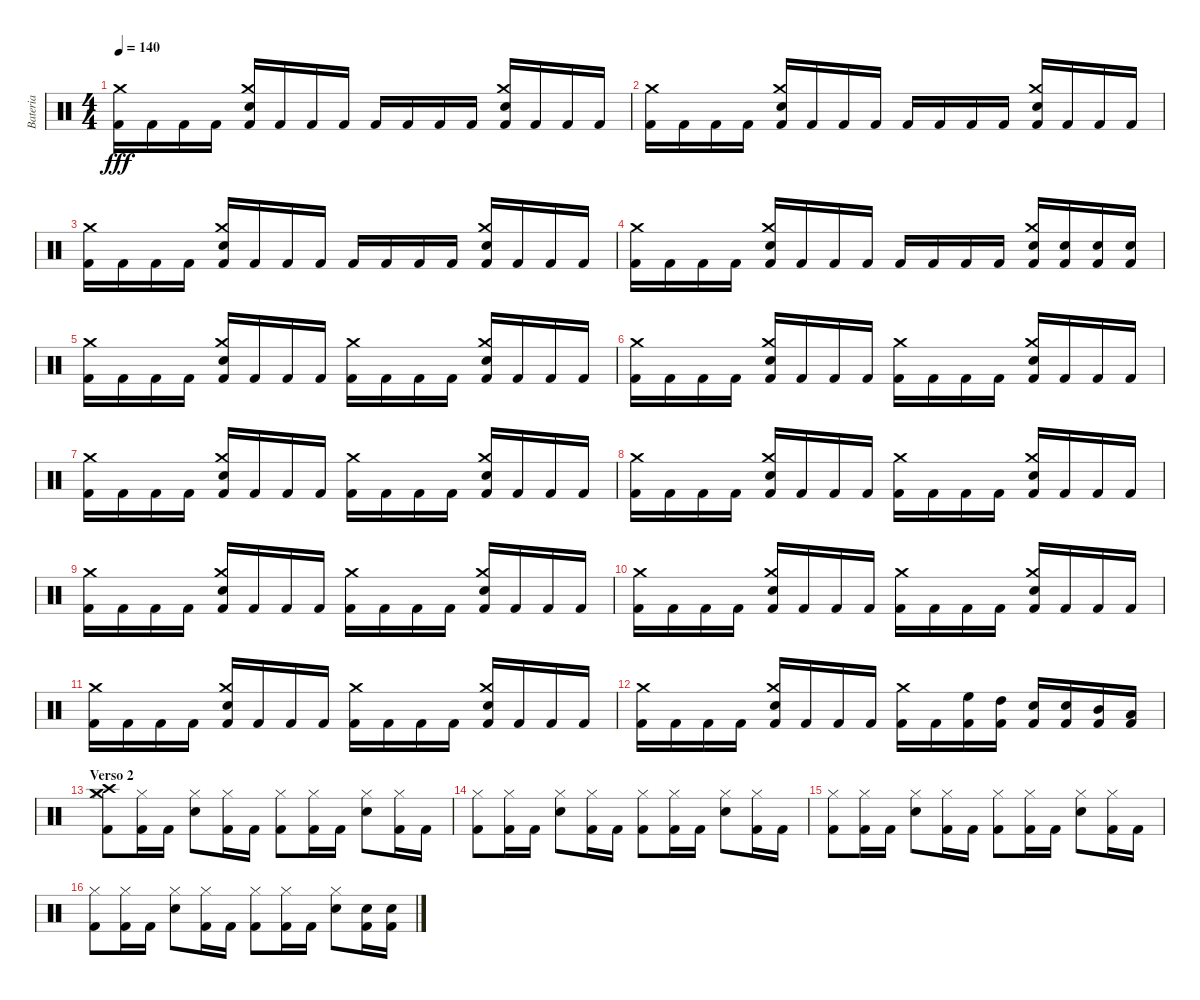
\track ("Bateria" "Bateria") {instrument percussion}
\staff {score}
\articulation defaults
\ts (4 4)
\tempo 140
\clef neutral
\ks c
("Kick (hit) 2" "Crash medium (hit)").16{dy fff} "Kick (hit) 2".16 "Kick (hit) 2".16 "Kick (hit) 2".16 ("Kick (hit) 2" "Metronome (bell)" "Crash medium (hit)").16 "Kick (hit) 2".16 "Kick (hit) 2".16 "Kick (hit) 2".16 "Kick (hit) 2".16 "Kick (hit) 2".16 "Kick (hit) 2".16 "Kick (hit) 2".16 ("Kick (hit) 2" "Metronome (bell)" "Crash medium (hit)").16 "Kick (hit) 2".16 "Kick (hit) 2".16 "Kick (hit) 2".16 |
("Kick (hit) 2" "Crash medium (hit)").16 "Kick (hit) 2".16 "Kick (hit) 2".16 "Kick (hit) 2".16 ("Kick (hit) 2" "Metronome (bell)" "Crash medium (hit)").16 "Kick (hit) 2".16 "Kick (hit) 2".16 "Kick (hit) 2".16 "Kick (hit) 2".16 "Kick (hit) 2".16 "Kick (hit) 2".16 "Kick (hit) 2".16 ("Kick (hit) 2" "Metronome (bell)" "Crash medium (hit)").16 "Kick (hit) 2".16 "Kick (hit) 2".16 "Kick (hit) 2".16 |
("Kick (hit) 2" "Crash medium (hit)").16 "Kick (hit) 2".16 "Kick (hit) 2".16 "Kick (hit) 2".16 ("Kick (hit) 2" "Metronome (bell)" "Crash medium (hit)").16 "Kick (hit) 2".16 "Kick (hit) 2".16 "Kick (hit) 2".16 "Kick (hit) 2".16 "Kick (hit) 2".16 "Kick (hit) 2".16 "Kick (hit) 2".16 ("Kick (hit) 2" "Metronome (bell)" "Crash medium (hit)").16 "Kick (hit) 2".16 "Kick (hit) 2".16 "Kick (hit) 2".16 |
("Kick (hit) 2" "Crash medium (hit)").16 "Kick (hit) 2".16 "Kick (hit) 2".16 "Kick (hit) 2".16 ("Kick (hit) 2" "Metronome (bell)" "Crash medium (hit)").16 "Kick (hit) 2".16 "Kick (hit) 2".16 "Kick (hit) 2".16 "Kick (hit) 2".16 "Kick (hit) 2".16 "Kick (hit) 2".16 "Kick (hit) 2".16 ("Kick (hit) 2" "Metronome (bell)" "Crash medium (hit)").16 ("Kick (hit) 2" "Metronome (bell)").16 ("Kick (hit) 2" "Metronome (bell)").16 ("Kick (hit) 2" "Metronome (bell)").16 |
("Kick (hit) 2" "Crash medium (hit)").16 "Kick (hit) 2".16 "Kick (hit) 2".16 "Kick (hit) 2".16 ("Kick (hit) 2" "Metronome (bell)" "Crash medium (hit)").16 "Kick (hit) 2".16 "Kick (hit) 2".16 "Kick (hit) 2".16 ("Kick (hit) 2" "Crash medium (hit)").16 "Kick (hit) 2".16 "Kick (hit) 2".16 "Kick (hit) 2".16 ("Kick (hit) 2" "Metronome (bell)" "Crash medium (hit)").16 "Kick (hit) 2".16 "Kick (hit) 2".16 "Kick (hit) 2".16 |
("Kick (hit) 2" "Crash medium (hit)").16 "Kick (hit) 2".16 "Kick (hit) 2".16 "Kick (hit) 2".16 ("Kick (hit) 2" "Metronome (bell)" "Crash medium (hit)").16 "Kick (hit) 2".16 "Kick (hit) 2".16 "Kick (hit) 2".16 ("Kick (hit) 2" "Crash medium (hit)").16 "Kick (hit) 2".16 "Kick (hit) 2".16 "Kick (hit) 2".16 ("Kick (hit) 2" "Metronome (bell)" "Crash medium (hit)").16 "Kick (hit) 2".16 "Kick (hit) 2".16 "Kick (hit) 2".16 |
("Kick (hit) 2" "Crash medium (hit)").16 "Kick (hit) 2".16 "Kick (hit) 2".16 "Kick (hit) 2".16 ("Kick (hit) 2" "Metronome (bell)" "Crash medium (hit)").16 "Kick (hit) 2".16 "Kick (hit) 2".16 "Kick (hit) 2".16 ("Kick (hit) 2" "Crash medium (hit)").16 "Kick (hit) 2".16 "Kick (hit) 2".16 "Kick (hit) 2".16 ("Kick (hit) 2" "Metronome (bell)" "Crash medium (hit)").16 "Kick (hit) 2".16 "Kick (hit) 2".16 "Kick (hit) 2".16 |
("Kick (hit) 2" "Crash medium (hit)").16 "Kick (hit) 2".16 "Kick (hit) 2".16 "Kick (hit) 2".16 ("Kick (hit) 2" "Metronome (bell)" "Crash medium (hit)").16 "Kick (hit) 2".16 "Kick (hit) 2".16 "Kick (hit) 2".16 ("Kick (hit) 2" "Crash medium (hit)").16 "Kick (hit) 2".16 "Kick (hit) 2".16 "Kick (hit) 2".16 ("Kick (hit) 2" "Metronome (bell)" "Crash medium (hit)").16 "Kick (hit) 2".16 "Kick (hit) 2".16 "Kick (hit) 2".16 |
("Kick (hit) 2" "Crash medium (hit)").16 "Kick (hit) 2".16 "Kick (hit) 2".16 "Kick (hit) 2".16 ("Kick (hit) 2" "Metronome (bell)" "Crash medium (hit)").16 "Kick (hit) 2".16 "Kick (hit) 2".16 "Kick (hit) 2".16 ("Kick (hit) 2" "Crash medium (hit)").16 "Kick (hit) 2".16 "Kick (hit) 2".16 "Kick (hit) 2".16 ("Kick (hit) 2" "Metronome (bell)" "Crash medium (hit)").16 "Kick (hit) 2".16 "Kick (hit) 2".16 "Kick (hit) 2".16 |
("Kick (hit) 2" "Crash medium (hit)").16 "Kick (hit) 2".16 "Kick (hit) 2".16 "Kick (hit) 2".16 ("Kick (hit) 2" "Metronome (bell)" "Crash medium (hit)").16 "Kick (hit) 2".16 "Kick (hit) 2".16 "Kick (hit) 2".16 ("Kick (hit) 2" "Crash medium (hit)").16 "Kick (hit) 2".16 "Kick (hit) 2".16 "Kick (hit) 2".16 ("Kick (hit) 2" "Metronome (bell)" "Crash medium (hit)").16 "Kick (hit) 2".16 "Kick (hit) 2".16 "Kick (hit) 2".16 |
("Kick (hit) 2" "Crash medium (hit)").16 "Kick (hit) 2".16 "Kick (hit) 2".16 "Kick (hit) 2".16 ("Kick (hit) 2" "Metronome (bell)" "Crash medium (hit)").16 "Kick (hit) 2".16 "Kick (hit) 2".16 "Kick (hit) 2".16 ("Kick (hit) 2" "Crash medium (hit)").16 "Kick (hit) 2".16 "Kick (hit) 2".16 "Kick (hit) 2".16 ("Kick (hit) 2" "Metronome (bell)" "Crash medium (hit)").16 "Kick (hit) 2".16 "Kick (hit) 2".16 "Kick (hit) 2".16 |
("Kick (hit) 2" "Crash medium (hit)").16 "Kick (hit) 2".16 "Kick (hit) 2".16 "Kick (hit) 2".16 ("Kick (hit) 2" "Metronome (bell)" "Crash medium (hit)").16 "Kick (hit) 2".16 "Kick (hit) 2".16 "Kick (hit) 2".16 ("Kick (hit) 2" "Crash medium (hit)").16 "Kick (hit) 2".16 ("Kick (hit) 2" "High Floor Tom (hit)").16 ("Kick (hit) 2" "High Tom (hit)").16 ("Kick (hit) 2" "Metronome (bell)").16 ("Kick (hit) 2" "Metronome (bell)").16 ("Kick (hit) 2" "Mid Tom (hit)").16 ("Kick (hit) 2" "Low Tom (hit)").16 |
\section ("" "Verso 2")
("Hi-Hat (closed)" "Kick (hit) 2" "Crash medium (hit)" "Crash high (hit)").8 ("Hi-Hat (closed)" "Kick (hit) 2").16 "Kick (hit) 2".16 ("Hi-Hat (closed)" "Electric Snare (hit)").8 ("Hi-Hat (closed)" "Kick (hit) 2").16 "Kick (hit) 2".16 ("Hi-Hat (closed)" "Kick (hit) 2").8 ("Hi-Hat (closed)" "Kick (hit) 2").16 "Kick (hit) 2".16 ("Hi-Hat (closed)" "Electric Snare (hit)").8 ("Hi-Hat (closed)" "Kick (hit) 2").16 "Kick (hit) 2".16 |
("Hi-Hat (closed)" "Kick (hit) 2").8 ("Hi-Hat (closed)" "Kick (hit) 2").16 "Kick (hit) 2".16 ("Hi-Hat (closed)" "Electric Snare (hit)").8 ("Hi-Hat (closed)" "Kick (hit) 2").16 "Kick (hit) 2".16 ("Hi-Hat (closed)" "Kick (hit) 2").8 ("Hi-Hat (closed)" "Kick (hit) 2").16 "Kick (hit) 2".16 ("Hi-Hat (closed)" "Electric Snare (hit)").8 ("Hi-Hat (closed)" "Kick (hit) 2").16 "Kick (hit) 2".16 |
("Hi-Hat (closed)" "Kick (hit) 2").8 ("Hi-Hat (closed)" "Kick (hit) 2").16 "Kick (hit) 2".16 ("Hi-Hat (closed)" "Electric Snare (hit)").8 ("Hi-Hat (closed)" "Kick (hit) 2").16 "Kick (hit) 2".16 ("Hi-Hat (closed)" "Kick (hit) 2").8 ("Hi-Hat (closed)" "Kick (hit) 2").16 "Kick (hit) 2".16 ("Hi-Hat (closed)" "Electric Snare (hit)").8 ("Hi-Hat (closed)" "Kick (hit) 2").16 "Kick (hit) 2".16 |
("Hi-Hat (closed)" "Kick (hit) 2").8 ("Hi-Hat (closed)" "Kick (hit) 2").16 "Kick (hit) 2".16 ("Hi-Hat (closed)" "Electric Snare (hit)").8 ("Hi-Hat (closed)" "Kick (hit) 2").16 "Kick (hit) 2".16 ("Hi-Hat (closed)" "Kick (hit) 2").8 ("Hi-Hat (closed)" "Kick (hit) 2").16 "Kick (hit) 2".16 ("Hi-Hat (closed)" "Electric Snare (hit)").8 ("Kick (hit) 2" "Electric Snare (hit)").16 ("Kick (hit) 2" "Electric Snare (hit)").16
